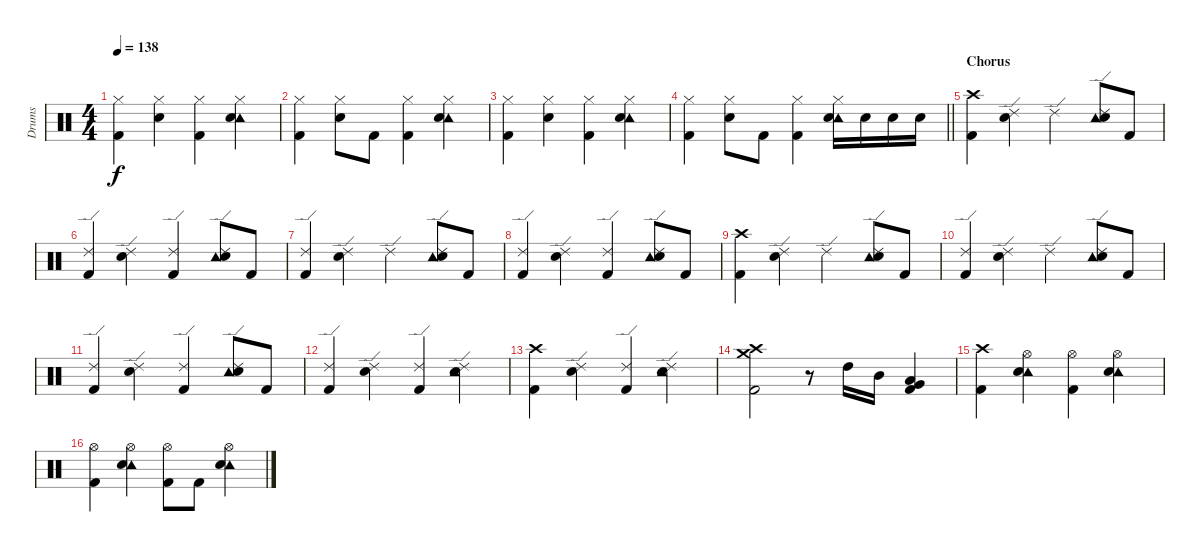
\track ("Drums" "Drums") {instrument percussion}
\staff {score}
\articulation defaults
\ts (4 4)
\tempo 138
\clef neutral
\ks c
("Hi-Hat (closed)" "Kick (hit) 2").4{dy f} ("Hi-Hat (closed)" "Snare (hit) 2").4 ("Hi-Hat (closed)" "Kick (hit) 2").4 ("Tambourine (hit)" "Hi-Hat (closed)" "Snare (hit) 2").4 |
("Hi-Hat (closed)" "Kick (hit) 2").4 ("Hi-Hat (closed)" "Snare (hit) 2").8 "Kick (hit) 2".8 ("Hi-Hat (closed)" "Kick (hit) 2").4 ("Tambourine (hit)" "Hi-Hat (closed)" "Snare (hit) 2").4 |
("Hi-Hat (closed)" "Kick (hit) 2").4 ("Hi-Hat (closed)" "Snare (hit) 2").4 ("Hi-Hat (closed)" "Kick (hit) 2").4 ("Tambourine (hit)" "Hi-Hat (closed)" "Snare (hit) 2").4 |
\barLineRight lightlight
("Hi-Hat (closed)" "Kick (hit) 2").4 ("Hi-Hat (closed)" "Snare (hit) 2").8 "Kick (hit) 2".8 ("Hi-Hat (closed)" "Kick (hit) 2").4 ("Tambourine (hit)" "Hi-Hat (closed)" "Snare (hit) 2").16 "Snare (hit) 2".16 "Snare (hit) 2".16 "Snare (hit) 2".16 |
\section ("" "Chorus")
("Crash high (hit)" "Kick (hit) 2").4 ("Ride (edge) 2" "Snare (hit) 2").4 "Ride (edge) 2".4 ("Tambourine (hit)" "Ride (edge) 2" "Snare (hit) 2").8 "Kick (hit) 2".8 |
("Ride (edge) 2" "Kick (hit) 2").4 ("Ride (edge) 2" "Snare (hit) 2").4 ("Ride (edge) 2" "Kick (hit) 2").4 ("Tambourine (hit)" "Ride (edge) 2" "Snare (hit) 2").8 "Kick (hit) 2".8 |
("Ride (edge) 2" "Kick (hit) 2").4 ("Ride (edge) 2" "Snare (hit) 2").4 "Ride (edge) 2".4 ("Tambourine (hit)" "Ride (edge) 2" "Snare (hit) 2").8 "Kick (hit) 2".8 |
("Ride (edge) 2" "Kick (hit) 2").4 ("Ride (edge) 2" "Snare (hit) 2").4 ("Ride (edge) 2" "Kick (hit) 2").4 ("Tambourine (hit)" "Ride (edge) 2" "Snare (hit) 2").8 "Kick (hit) 2".8 |
("Crash high (hit)" "Kick (hit) 2").4 ("Ride (edge) 2" "Snare (hit) 2").4 "Ride (edge) 2".4 ("Tambourine (hit)" "Ride (edge) 2" "Snare (hit) 2").8 "Kick (hit) 2".8 |
("Ride (edge) 2" "Kick (hit) 2").4 ("Ride (edge) 2" "Snare (hit) 2").4 "Ride (edge) 2".4 ("Tambourine (hit)" "Ride (edge) 2" "Snare (hit) 2").8 "Kick (hit) 2".8 |
("Ride (edge) 2" "Kick (hit) 2").4 ("Ride (edge) 2" "Snare (hit) 2").4 ("Ride (edge) 2" "Kick (hit) 2").4 ("Tambourine (hit)" "Ride (edge) 2" "Snare (hit) 2").8 "Kick (hit) 2".8 |
("Ride (edge) 2" "Kick (hit) 2").4 ("Ride (edge) 2" "Snare (hit) 2").4 ("Ride (edge) 2" "Kick (hit) 2").4 ("Tambourine (hit)" "Ride (edge) 2" "Snare (hit) 2").4 |
("Crash high (hit)" "Kick (hit) 2").4 ("Ride (edge) 2" "Snare (hit) 2").4 ("Ride (edge) 2" "Kick (hit) 2").4 ("Tambourine (hit)" "Ride (edge) 2" "Snare (hit) 2").4 |
("Crash high (hit)" "Crash medium (hit)" "Kick (hit) 2").2 r.8 "High Tom (hit)".16 "Mid Tom (hit)".16 ("Very Low Tom (hit)" "Low Tom (hit)" "Kick (hit) 2").4 |
("Crash high (hit)" "Kick (hit) 2").4 ("Tambourine (hit)" "Hi-Hat (open)" "Snare (hit) 2").4 ("Hi-Hat (open)" "Kick (hit) 2").4 ("Tambourine (hit)" "Hi-Hat (open)" "Snare (hit) 2").4 |
("Hi-Hat (open)" "Kick (hit) 2").4 ("Tambourine (hit)" "Hi-Hat (open)" "Snare (hit) 2").4 ("Hi-Hat (open)" "Kick (hit) 2").8 "Kick (hit) 2".8 ("Tambourine (hit)" "Hi-Hat (open)" "Snare (hit) 2").4
